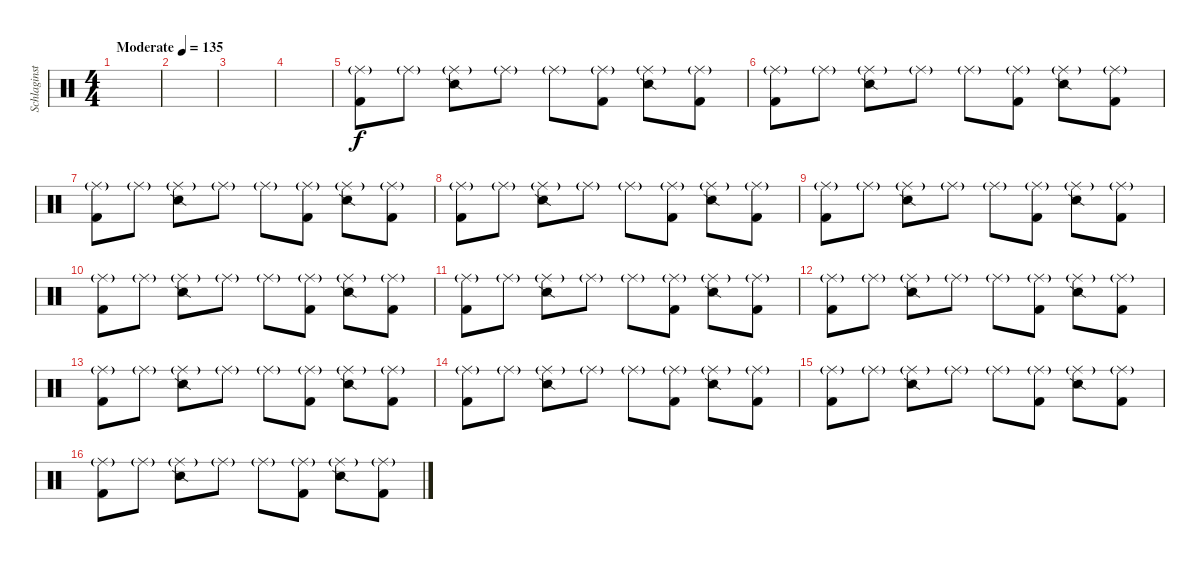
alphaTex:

\track ("Schlaginstrumente - Auswahl" "Schlaginst") {instrument percussion}
\staff {score}
\articulation defaults
\ts (4 4)
\tempo (135 "Moderate")
\clef neutral
\ks c
|
|
|
|
("Ride (middle)"{g} "Kick (hit) 2").8 "Ride (middle)"{g}.8 ("Ride (middle)"{g} "Snare (side stick) 2").8 "Ride (middle)"{g}.8 "Ride (middle)"{g}.8 ("Ride (middle)"{g} "Kick (hit) 2").8 ("Ride (middle)"{g} "Snare (side stick) 2").8 ("Ride (middle)"{g} "Kick (hit) 2").8 |
("Ride (middle)"{g} "Kick (hit) 2").8 "Ride (middle)"{g}.8 ("Ride (middle)"{g} "Snare (side stick) 2").8 "Ride (middle)"{g}.8 "Ride (middle)"{g}.8 ("Ride (middle)"{g} "Kick (hit) 2").8 ("Ride (middle)"{g} "Snare (side stick) 2").8 ("Ride (middle)"{g} "Kick (hit) 2").8 |
("Ride (middle)"{g} "Kick (hit) 2").8 "Ride (middle)"{g}.8 ("Ride (middle)"{g} "Snare (side stick) 2").8 "Ride (middle)"{g}.8 "Ride (middle)"{g}.8 ("Ride (middle)"{g} "Kick (hit) 2").8 ("Ride (middle)"{g} "Snare (side stick) 2").8 ("Ride (middle)"{g} "Kick (hit) 2").8 |
("Ride (middle)"{g} "Kick (hit) 2").8 "Ride (middle)"{g}.8 ("Ride (middle)"{g} "Snare (side stick) 2").8 "Ride (middle)"{g}.8 "Ride (middle)"{g}.8 ("Ride (middle)"{g} "Kick (hit) 2").8 ("Ride (middle)"{g} "Snare (side stick) 2").8 ("Ride (middle)"{g} "Kick (hit) 2").8 |
("Ride (middle)"{g} "Kick (hit) 2").8 "Ride (middle)"{g}.8 ("Ride (middle)"{g} "Snare (side stick) 2").8 "Ride (middle)"{g}.8 "Ride (middle)"{g}.8 ("Ride (middle)"{g} "Kick (hit) 2").8 ("Ride (middle)"{g} "Snare (side stick) 2").8 ("Ride (middle)"{g} "Kick (hit) 2").8 |
("Ride (middle)"{g} "Kick (hit) 2").8 "Ride (middle)"{g}.8 ("Ride (middle)"{g} "Snare (side stick) 2").8 "Ride (middle)"{g}.8 "Ride (middle)"{g}.8 ("Ride (middle)"{g} "Kick (hit) 2").8 ("Ride (middle)"{g} "Snare (side stick) 2").8 ("Ride (middle)"{g} "Kick (hit) 2").8 |
("Ride (middle)"{g} "Kick (hit) 2").8 "Ride (middle)"{g}.8 ("Ride (middle)"{g} "Snare (side stick) 2").8 "Ride (middle)"{g}.8 "Ride (middle)"{g}.8 ("Ride (middle)"{g} "Kick (hit) 2").8 ("Ride (middle)"{g} "Snare (side stick) 2").8 ("Ride (middle)"{g} "Kick (hit) 2").8 |
("Ride (middle)"{g} "Kick (hit) 2").8 "Ride (middle)"{g}.8 ("Ride (middle)"{g} "Snare (side stick) 2").8 "Ride (middle)"{g}.8 "Ride (middle)"{g}.8 ("Ride (middle)"{g} "Kick (hit) 2").8 ("Ride (middle)"{g} "Snare (side stick) 2").8 ("Ride (middle)"{g} "Kick (hit) 2").8 |
("Ride (middle)"{g} "Kick (hit) 2").8 "Ride (middle)"{g}.8 ("Ride (middle)"{g} "Snare (side stick) 2").8 "Ride (middle)"{g}.8 "Ride (middle)"{g}.8 ("Ride (middle)"{g} "Kick (hit) 2").8 ("Ride (middle)"{g} "Snare (side stick) 2").8 ("Ride (middle)"{g} "Kick (hit) 2").8 |
("Ride (middle)"{g} "Kick (hit) 2").8 "Ride (middle)"{g}.8 ("Ride (middle)"{g} "Snare (side stick) 2").8 "Ride (middle)"{g}.8 "Ride (middle)"{g}.8 ("Ride (middle)"{g} "Kick (hit) 2").8 ("Ride (middle)"{g} "Snare (side stick) 2").8 ("Ride (middle)"{g} "Kick (hit) 2").8 |
("Ride (middle)"{g} "Kick (hit) 2").8 "Ride (middle)"{g}.8 ("Ride (middle)"{g} "Snare (side stick) 2").8 "Ride (middle)"{g}.8 "Ride (middle)"{g}.8 ("Ride (middle)"{g} "Kick (hit) 2").8 ("Ride (middle)"{g} "Snare (side stick) 2").8 ("Ride (middle)"{g} "Kick (hit) 2").8 |
("Ride (middle)"{g} "Kick (hit) 2").8 "Ride (middle)"{g}.8 ("Ride (middle)"{g} "Snare (side stick) 2").8 "Ride (middle)"{g}.8 "Ride (middle)"{g}.8 ("Ride (middle)"{g} "Kick (hit) 2").8 ("Ride (middle)"{g} "Snare (side stick) 2").8 ("Ride (middle)"{g} "Kick (hit) 2").8
